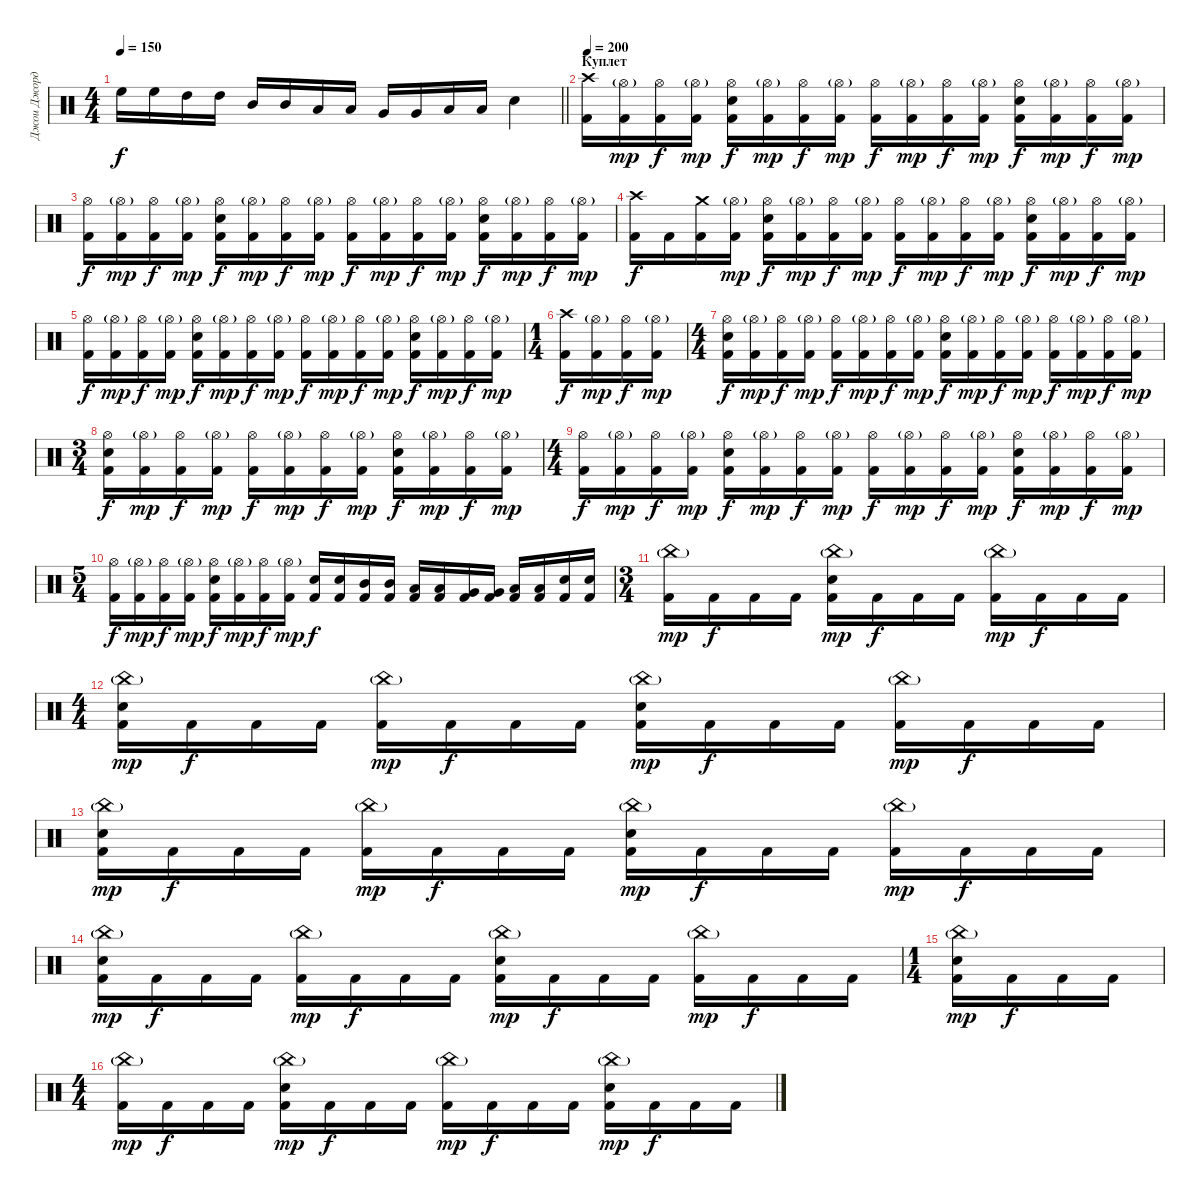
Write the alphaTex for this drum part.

\track ("Джои Джордисон" "Джои Джорд") {instrument percussion}
\staff {score}
\articulation defaults
\ts (4 4)
\tempo 150
\clef neutral
\barLineRight lightlight
\ks c "High Floor Tom (hit)".16{dy f} "High Floor Tom (hit)".16 "High Tom (hit)".16 "High Tom (hit)".16 "Mid Tom (hit)".16 "Mid Tom (hit)".16 "Low Tom (hit)".16 "Low Tom (hit)".16 "Very Low Tom (hit)".16 "Very Low Tom (hit)".16 "Low Floor Tom (hit)".16 "Low Floor Tom (hit)".16 "Electric Snare (hit)".4
|
\section ("" "Куплет")
\tempo 200
("Crash high (hit)" "Kick (hit) 2").16 ("Hi-Hat (open)"{g} "Kick (hit) 2").16{dy mp} ("Hi-Hat (open)" "Kick (hit) 2").16{dy f} ("Hi-Hat (open)"{g} "Kick (hit) 2").16{dy mp} ("Hi-Hat (open)" "Electric Snare (hit)" "Kick (hit) 2").16{dy f} ("Hi-Hat (open)"{g} "Kick (hit) 2").16{dy mp} ("Hi-Hat (open)" "Kick (hit) 2").16{dy f} ("Hi-Hat (open)"{g} "Kick (hit) 2").16{dy mp} ("Hi-Hat (open)" "Kick (hit) 2").16{dy f} ("Hi-Hat (open)"{g} "Kick (hit) 2").16{dy mp} ("Hi-Hat (open)" "Kick (hit) 2").16{dy f} ("Hi-Hat (open)"{g} "Kick (hit) 2").16{dy mp} ("Hi-Hat (open)" "Electric Snare (hit)" "Kick (hit) 2").16{dy f} ("Hi-Hat (open)"{g} "Kick (hit) 2").16{dy mp} ("Hi-Hat (open)" "Kick (hit) 2").16{dy f} ("Hi-Hat (open)"{g} "Kick (hit) 2").16{dy mp} |
("Hi-Hat (open)" "Kick (hit) 2").16{dy f} ("Hi-Hat (open)"{g} "Kick (hit) 2").16{dy mp} ("Hi-Hat (open)" "Kick (hit) 2").16{dy f} ("Hi-Hat (open)"{g} "Kick (hit) 2").16{dy mp} ("Hi-Hat (open)" "Electric Snare (hit)" "Kick (hit) 2").16{dy f} ("Hi-Hat (open)"{g} "Kick (hit) 2").16{dy mp} ("Hi-Hat (open)" "Kick (hit) 2").16{dy f} ("Hi-Hat (open)"{g} "Kick (hit) 2").16{dy mp} ("Hi-Hat (open)" "Kick (hit) 2").16{dy f} ("Hi-Hat (open)"{g} "Kick (hit) 2").16{dy mp} ("Hi-Hat (open)" "Kick (hit) 2").16{dy f} ("Hi-Hat (open)"{g} "Kick (hit) 2").16{dy mp} ("Hi-Hat (open)" "Electric Snare (hit)" "Kick (hit) 2").16{dy f} ("Hi-Hat (open)"{g} "Kick (hit) 2").16{dy mp} ("Hi-Hat (open)" "Kick (hit) 2").16{dy f} ("Hi-Hat (open)"{g} "Kick (hit) 2").16{dy mp} |
("Crash high (hit)" "Kick (hit) 2").16{dy f} "Kick (hit) 2".16 ("Crash medium (hit)" "Kick (hit) 2").16 ("Hi-Hat (open)"{g} "Kick (hit) 2").16{dy mp} ("Hi-Hat (open)" "Electric Snare (hit)" "Kick (hit) 2").16{dy f} ("Hi-Hat (open)"{g} "Kick (hit) 2").16{dy mp} ("Hi-Hat (open)" "Kick (hit) 2").16{dy f} ("Hi-Hat (open)"{g} "Kick (hit) 2").16{dy mp} ("Hi-Hat (open)" "Kick (hit) 2").16{dy f} ("Hi-Hat (open)"{g} "Kick (hit) 2").16{dy mp} ("Hi-Hat (open)" "Kick (hit) 2").16{dy f} ("Hi-Hat (open)"{g} "Kick (hit) 2").16{dy mp} ("Hi-Hat (open)" "Electric Snare (hit)" "Kick (hit) 2").16{dy f} ("Hi-Hat (open)"{g} "Kick (hit) 2").16{dy mp} ("Hi-Hat (open)" "Kick (hit) 2").16{dy f} ("Hi-Hat (open)"{g} "Kick (hit) 2").16{dy mp} |
("Hi-Hat (open)" "Kick (hit) 2").16{dy f} ("Hi-Hat (open)"{g} "Kick (hit) 2").16{dy mp} ("Hi-Hat (open)" "Kick (hit) 2").16{dy f} ("Hi-Hat (open)"{g} "Kick (hit) 2").16{dy mp} ("Hi-Hat (open)" "Electric Snare (hit)" "Kick (hit) 2").16{dy f} ("Hi-Hat (open)"{g} "Kick (hit) 2").16{dy mp} ("Hi-Hat (open)" "Kick (hit) 2").16{dy f} ("Hi-Hat (open)"{g} "Kick (hit) 2").16{dy mp} ("Hi-Hat (open)" "Kick (hit) 2").16{dy f} ("Hi-Hat (open)"{g} "Kick (hit) 2").16{dy mp} ("Hi-Hat (open)" "Kick (hit) 2").16{dy f} ("Hi-Hat (open)"{g} "Kick (hit) 2").16{dy mp} ("Hi-Hat (open)" "Electric Snare (hit)" "Kick (hit) 2").16{dy f} ("Hi-Hat (open)"{g} "Kick (hit) 2").16{dy mp} ("Hi-Hat (open)" "Kick (hit) 2").16{dy f} ("Hi-Hat (open)"{g} "Kick (hit) 2").16{dy mp} |
\ts (1 4)
("Crash high (hit)" "Kick (hit) 2").16{dy f} ("Hi-Hat (open)"{g} "Kick (hit) 2").16{dy mp} ("Hi-Hat (open)" "Kick (hit) 2").16{dy f} ("Hi-Hat (open)"{g} "Kick (hit) 2").16{dy mp} |
\ts (4 4)
("Hi-Hat (open)" "Electric Snare (hit)" "Kick (hit) 2").16{dy f} ("Hi-Hat (open)"{g} "Kick (hit) 2").16{dy mp} ("Hi-Hat (open)" "Kick (hit) 2").16{dy f} ("Hi-Hat (open)"{g} "Kick (hit) 2").16{dy mp} ("Hi-Hat (open)" "Kick (hit) 2").16{dy f} ("Hi-Hat (open)"{g} "Kick (hit) 2").16{dy mp} ("Hi-Hat (open)" "Kick (hit) 2").16{dy f} ("Hi-Hat (open)"{g} "Kick (hit) 2").16{dy mp} ("Hi-Hat (open)" "Electric Snare (hit)" "Kick (hit) 2").16{dy f} ("Hi-Hat (open)"{g} "Kick (hit) 2").16{dy mp} ("Hi-Hat (open)" "Kick (hit) 2").16{dy f} ("Hi-Hat (open)"{g} "Kick (hit) 2").16{dy mp} ("Hi-Hat (open)" "Kick (hit) 2").16{dy f} ("Hi-Hat (open)"{g} "Kick (hit) 2").16{dy mp} ("Hi-Hat (open)" "Kick (hit) 2").16{dy f} ("Hi-Hat (open)"{g} "Kick (hit) 2").16{dy mp} |
\ts (3 4)
("Hi-Hat (open)" "Electric Snare (hit)" "Kick (hit) 2").16{dy f} ("Hi-Hat (open)"{g} "Kick (hit) 2").16{dy mp} ("Hi-Hat (open)" "Kick (hit) 2").16{dy f} ("Hi-Hat (open)"{g} "Kick (hit) 2").16{dy mp} ("Hi-Hat (open)" "Kick (hit) 2").16{dy f} ("Hi-Hat (open)"{g} "Kick (hit) 2").16{dy mp} ("Hi-Hat (open)" "Kick (hit) 2").16{dy f} ("Hi-Hat (open)"{g} "Kick (hit) 2").16{dy mp} ("Hi-Hat (open)" "Electric Snare (hit)" "Kick (hit) 2").16{dy f} ("Hi-Hat (open)"{g} "Kick (hit) 2").16{dy mp} ("Hi-Hat (open)" "Kick (hit) 2").16{dy f} ("Hi-Hat (open)"{g} "Kick (hit) 2").16{dy mp} |
\ts (4 4)
("Hi-Hat (open)" "Kick (hit) 2").16{dy f} ("Hi-Hat (open)"{g} "Kick (hit) 2").16{dy mp} ("Hi-Hat (open)" "Kick (hit) 2").16{dy f} ("Hi-Hat (open)"{g} "Kick (hit) 2").16{dy mp} ("Hi-Hat (open)" "Electric Snare (hit)" "Kick (hit) 2").16{dy f} ("Hi-Hat (open)"{g} "Kick (hit) 2").16{dy mp} ("Hi-Hat (open)" "Kick (hit) 2").16{dy f} ("Hi-Hat (open)"{g} "Kick (hit) 2").16{dy mp} ("Hi-Hat (open)" "Kick (hit) 2").16{dy f} ("Hi-Hat (open)"{g} "Kick (hit) 2").16{dy mp} ("Hi-Hat (open)" "Kick (hit) 2").16{dy f} ("Hi-Hat (open)"{g} "Kick (hit) 2").16{dy mp} ("Hi-Hat (open)" "Electric Snare (hit)" "Kick (hit) 2").16{dy f} ("Hi-Hat (open)"{g} "Kick (hit) 2").16{dy mp} ("Hi-Hat (open)" "Kick (hit) 2").16{dy f} ("Hi-Hat (open)"{g} "Kick (hit) 2").16{dy mp} |
\ts (5 4)
("Hi-Hat (open)" "Kick (hit) 2").16{dy f} ("Hi-Hat (open)"{g} "Kick (hit) 2").16{dy mp} ("Hi-Hat (open)" "Kick (hit) 2").16{dy f} ("Hi-Hat (open)"{g} "Kick (hit) 2").16{dy mp} ("Hi-Hat (open)" "Electric Snare (hit)" "Kick (hit) 2").16{dy f} ("Hi-Hat (open)"{g} "Kick (hit) 2").16{dy mp} ("Hi-Hat (open)" "Kick (hit) 2").16{dy f} ("Hi-Hat (open)"{g} "Kick (hit) 2").16{dy mp} ("Electric Snare (hit)" "Kick (hit) 2").16{dy f} ("Electric Snare (hit)" "Kick (hit) 2").16 ("Mid Tom (hit)" "Kick (hit) 2").16 ("Mid Tom (hit)" "Kick (hit) 2").16 ("Low Tom (hit)" "Kick (hit) 2").16 ("Low Tom (hit)" "Kick (hit) 2").16 ("Very Low Tom (hit)" "Kick (hit) 2").16 ("Very Low Tom (hit)" "Kick (hit) 2").16 ("Low Floor Tom (hit)" "Kick (hit) 2").16 ("Low Floor Tom (hit)" "Kick (hit) 2").16 ("Electric Snare (hit)" "Kick (hit) 2").16 ("Electric Snare (hit)" "Kick (hit) 2").16 |
\ts (3 4)
("China (hit)"{g} "Kick (hit) 2").16{dy mp} "Kick (hit) 2".16{dy f} "Kick (hit) 2".16 "Kick (hit) 2".16 ("China (hit)"{g} "Electric Snare (hit)" "Kick (hit) 2").16{dy mp} "Kick (hit) 2".16{dy f} "Kick (hit) 2".16 "Kick (hit) 2".16 ("China (hit)"{g} "Kick (hit) 2").16{dy mp} "Kick (hit) 2".16{dy f} "Kick (hit) 2".16 "Kick (hit) 2".16 |
\ts (4 4)
("China (hit)"{g} "Electric Snare (hit)" "Kick (hit) 2").16{dy mp} "Kick (hit) 2".16{dy f} "Kick (hit) 2".16 "Kick (hit) 2".16 ("China (hit)"{g} "Kick (hit) 2").16{dy mp} "Kick (hit) 2".16{dy f} "Kick (hit) 2".16 "Kick (hit) 2".16 ("China (hit)"{g} "Electric Snare (hit)" "Kick (hit) 2").16{dy mp} "Kick (hit) 2".16{dy f} "Kick (hit) 2".16 "Kick (hit) 2".16 ("China (hit)"{g} "Kick (hit) 2").16{dy mp} "Kick (hit) 2".16{dy f} "Kick (hit) 2".16 "Kick (hit) 2".16 |
("China (hit)"{g} "Electric Snare (hit)" "Kick (hit) 2").16{dy mp} "Kick (hit) 2".16{dy f} "Kick (hit) 2".16 "Kick (hit) 2".16 ("China (hit)"{g} "Kick (hit) 2").16{dy mp} "Kick (hit) 2".16{dy f} "Kick (hit) 2".16 "Kick (hit) 2".16 ("China (hit)"{g} "Electric Snare (hit)" "Kick (hit) 2").16{dy mp} "Kick (hit) 2".16{dy f} "Kick (hit) 2".16 "Kick (hit) 2".16 ("China (hit)"{g} "Kick (hit) 2").16{dy mp} "Kick (hit) 2".16{dy f} "Kick (hit) 2".16 "Kick (hit) 2".16 |
("China (hit)"{g} "Electric Snare (hit)" "Kick (hit) 2").16{dy mp} "Kick (hit) 2".16{dy f} "Kick (hit) 2".16 "Kick (hit) 2".16 ("China (hit)"{g} "Kick (hit) 2").16{dy mp} "Kick (hit) 2".16{dy f} "Kick (hit) 2".16 "Kick (hit) 2".16 ("China (hit)"{g} "Electric Snare (hit)" "Kick (hit) 2").16{dy mp} "Kick (hit) 2".16{dy f} "Kick (hit) 2".16 "Kick (hit) 2".16 ("China (hit)"{g} "Kick (hit) 2").16{dy mp} "Kick (hit) 2".16{dy f} "Kick (hit) 2".16 "Kick (hit) 2".16 |
\ts (1 4)
("China (hit)"{g} "Electric Snare (hit)" "Kick (hit) 2").16{dy mp} "Kick (hit) 2".16{dy f} "Kick (hit) 2".16 "Kick (hit) 2".16 |
\ts (4 4)
("China (hit)"{g} "Kick (hit) 2").16{dy mp} "Kick (hit) 2".16{dy f} "Kick (hit) 2".16 "Kick (hit) 2".16 ("China (hit)"{g} "Electric Snare (hit)" "Kick (hit) 2").16{dy mp} "Kick (hit) 2".16{dy f} "Kick (hit) 2".16 "Kick (hit) 2".16 ("China (hit)"{g} "Kick (hit) 2").16{dy mp} "Kick (hit) 2".16{dy f} "Kick (hit) 2".16 "Kick (hit) 2".16 ("China (hit)"{g} "Electric Snare (hit)" "Kick (hit) 2").16{dy mp} "Kick (hit) 2".16{dy f} "Kick (hit) 2".16 "Kick (hit) 2".16
